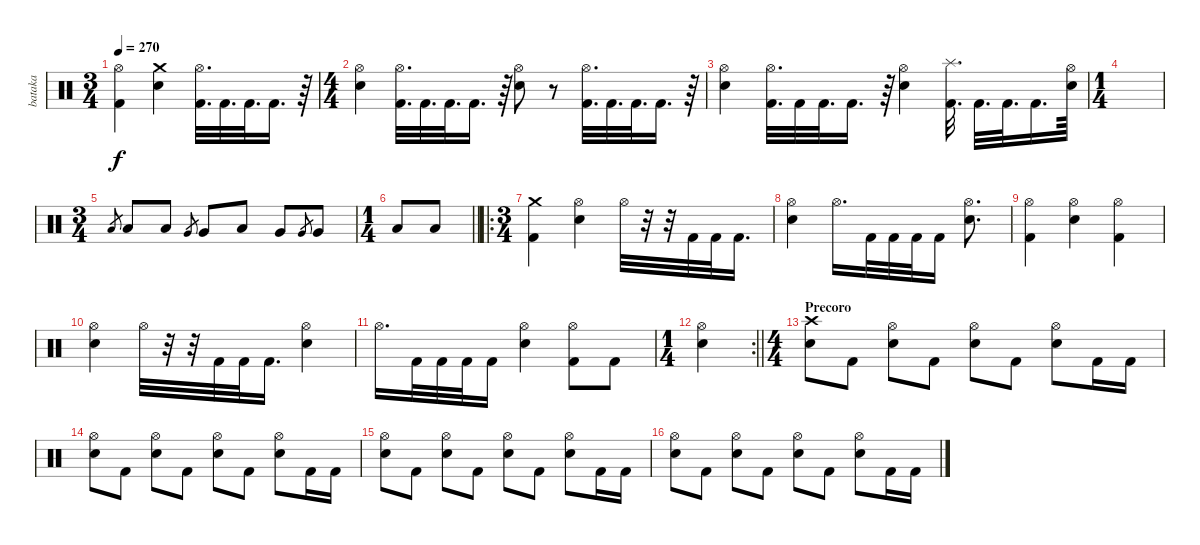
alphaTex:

\track ("bataka" "bataka") {instrument percussion}
\staff {score}
\articulation defaults
\ts (3 4)
\tempo 270
\clef neutral
\ks c
("Hi-Hat (open)" "Kick (hit) 2").4{dy f} ("Crash medium (hit)" "Electric Snare (hit)").4 ("Hi-Hat (open)" "Kick (hit) 2").32{d} "Kick (hit) 2".32{d} "Kick (hit) 2".32{d} "Kick (hit) 2".16{d} r.64 |
\ts (4 4)
("Hi-Hat (open)" "Electric Snare (hit)").4 ("Hi-Hat (open)" "Kick (hit) 2").32{d} "Kick (hit) 2".32{d} "Kick (hit) 2".32{d} "Kick (hit) 2".16{d} r.64 ("Hi-Hat (open)" "Electric Snare (hit)").8 r.8 ("Hi-Hat (open)" "Kick (hit) 2").32{d} "Kick (hit) 2".32{d} "Kick (hit) 2".32{d} "Kick (hit) 2".16{d} r.64 |
("Hi-Hat (open)" "Electric Snare (hit)").4 ("Hi-Hat (open)" "Kick (hit) 2").32{d} "Kick (hit) 2".32 "Kick (hit) 2".32{d} "Kick (hit) 2".16{d} r.64 ("Hi-Hat (open)" "Electric Snare (hit)").4 ("Splash (hit)" "Kick (hit) 2").32{d} "Kick (hit) 2".32{d} "Kick (hit) 2".32{d} "Kick (hit) 2".16{d} ("Hi-Hat (open)" "Electric Snare (hit)").64 |
\ts (1 4)
|
\ts (3 4)
"Low Tom (hit)".8{gr} "Low Tom (hit)".8 "Low Tom (hit)".8 "Very Low Tom (hit)".8{gr} "Very Low Tom (hit)".8 "Low Tom (hit)".8 "Very Low Tom (hit)".8 "Very Low Tom (hit)".8{gr} "Very Low Tom (hit)".8 |
\ts (1 4)
\barLineRight lightlight "Low Floor Tom (hit)".8 "Low Floor Tom (hit)".8
|
\ro
\ts (3 4)
("Crash medium (hit)" "Kick (hit) 2").4 ("Hi-Hat (open)" "Electric Snare (hit)").4 "Hi-Hat (open)".32 r.32 r.32 "Kick (hit) 2".32 "Kick (hit) 2".32 "Kick (hit) 2".16{d} |
("Hi-Hat (open)" "Electric Snare (hit)").4 "Hi-Hat (open)".16{d} "Kick (hit) 2".32 "Kick (hit) 2".32 "Kick (hit) 2".32 "Kick (hit) 2".16 ("Hi-Hat (open)" "Electric Snare (hit)").8{d} |
("Hi-Hat (open)" "Kick (hit) 2").4 ("Hi-Hat (open)" "Electric Snare (hit)").4 ("Hi-Hat (open)" "Kick (hit) 2").4 |
("Hi-Hat (open)" "Electric Snare (hit)").4 "Hi-Hat (open)".32 r.32 r.32 "Kick (hit) 2".32 "Kick (hit) 2".32 "Kick (hit) 2".16{d} ("Hi-Hat (open)" "Electric Snare (hit)").4 |
"Hi-Hat (open)".16{d} "Kick (hit) 2".32 "Kick (hit) 2".32 "Kick (hit) 2".32 "Kick (hit) 2".16 ("Hi-Hat (open)" "Electric Snare (hit)").4 ("Hi-Hat (open)" "Kick (hit) 2").8 "Kick (hit) 2".8 |
\rc 2
\ts (1 4)
\barLineRight lightlight
("Hi-Hat (open)" "Electric Snare (hit)").4 |
\ts (4 4)
\section ("" "Precoro")
("Crash high (hit)" "Electric Snare (hit)").8 "Kick (hit) 2".8 ("Hi-Hat (open)" "Electric Snare (hit)").8 "Kick (hit) 2".8 ("Hi-Hat (open)" "Electric Snare (hit)").8 "Kick (hit) 2".8 ("Hi-Hat (open)" "Electric Snare (hit)").8 "Kick (hit) 2".16 "Kick (hit) 2".16 |
("Hi-Hat (open)" "Electric Snare (hit)").8 "Kick (hit) 2".8 ("Hi-Hat (open)" "Electric Snare (hit)").8 "Kick (hit) 2".8 ("Hi-Hat (open)" "Electric Snare (hit)").8 "Kick (hit) 2".8 ("Hi-Hat (open)" "Electric Snare (hit)").8 "Kick (hit) 2".16 "Kick (hit) 2".16 |
("Hi-Hat (open)" "Electric Snare (hit)").8 "Kick (hit) 2".8 ("Hi-Hat (open)" "Electric Snare (hit)").8 "Kick (hit) 2".8 ("Hi-Hat (open)" "Electric Snare (hit)").8 "Kick (hit) 2".8 ("Hi-Hat (open)" "Electric Snare (hit)").8 "Kick (hit) 2".16 "Kick (hit) 2".16 |
("Hi-Hat (open)" "Electric Snare (hit)").8 "Kick (hit) 2".8 ("Hi-Hat (open)" "Electric Snare (hit)").8 "Kick (hit) 2".8 ("Hi-Hat (open)" "Electric Snare (hit)").8 "Kick (hit) 2".8 ("Hi-Hat (open)" "Electric Snare (hit)").8 "Kick (hit) 2".16 "Kick (hit) 2".16
